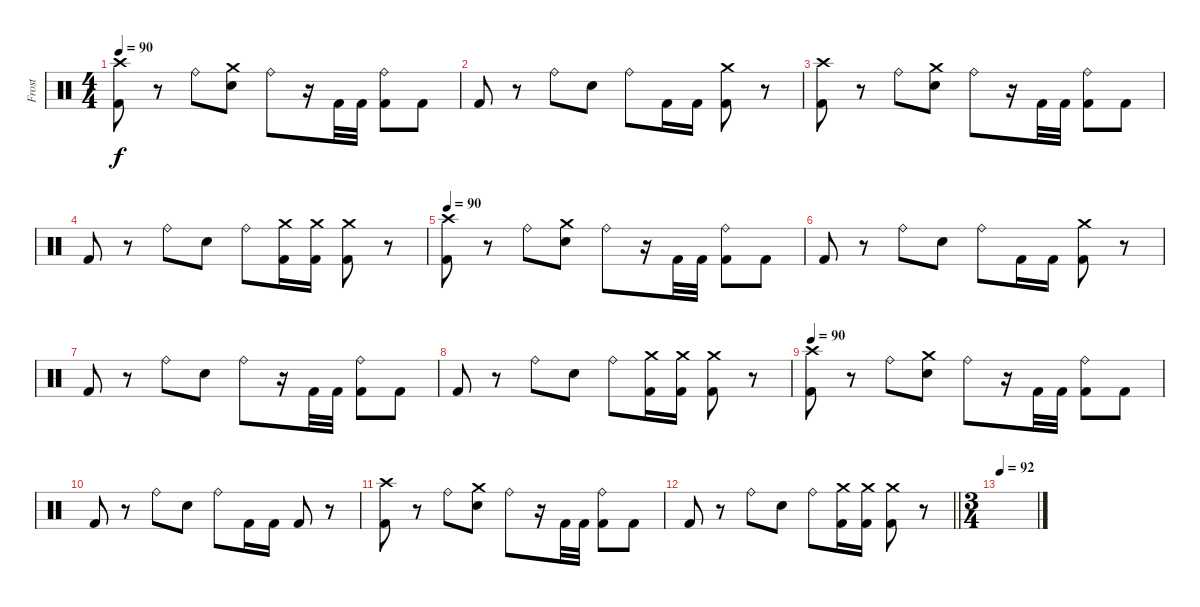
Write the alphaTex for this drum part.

\track ("Frost" "Frost") {instrument percussion}
\staff {score}
\articulation defaults
\ts (4 4)
\tempo 90
\clef neutral
\ks c
("Kick (hit) 2" "Crash high (hit)").8{dy f} r.8 "Ride (bell)".8 ("Snare (hit) 2" "Crash medium (hit)").8 "Ride (bell)".8 r.16 "Kick (hit) 2".32 "Kick (hit) 2".32 ("Kick (hit) 2" "Ride (bell)").8 "Kick (hit) 2".8 |
"Kick (hit) 2".8 r.8 "Ride (bell)".8 "Snare (hit) 2".8 "Ride (bell)".8 "Kick (hit) 2".16 "Kick (hit) 2".16 ("Kick (hit) 2" "Crash medium (hit)").8 r.8 |
("Kick (hit) 2" "Crash high (hit)").8 r.8 "Ride (bell)".8 ("Snare (hit) 2" "Crash medium (hit)").8 "Ride (bell)".8 r.16 "Kick (hit) 2".32 "Kick (hit) 2".32 ("Kick (hit) 2" "Ride (bell)").8 "Kick (hit) 2".8 |
"Kick (hit) 2".8 r.8 "Ride (bell)".8 "Snare (hit) 2".8 "Ride (bell)".8 ("Kick (hit) 2" "Crash medium (hit)").16 ("Kick (hit) 2" "Crash medium (hit)").16 ("Kick (hit) 2" "Crash medium (hit)").8 r.8 |
\tempo 90
("Kick (hit) 2" "Crash high (hit)").8 r.8 "Ride (bell)".8 ("Snare (hit) 2" "Crash medium (hit)").8 "Ride (bell)".8 r.16 "Kick (hit) 2".32 "Kick (hit) 2".32 ("Kick (hit) 2" "Ride (bell)").8 "Kick (hit) 2".8 |
"Kick (hit) 2".8 r.8 "Ride (bell)".8 "Snare (hit) 2".8 "Ride (bell)".8 "Kick (hit) 2".16 "Kick (hit) 2".16 ("Kick (hit) 2" "Crash medium (hit)").8 r.8 |
"Kick (hit) 2".8 r.8 "Ride (bell)".8 "Snare (hit) 2".8 "Ride (bell)".8 r.16 "Kick (hit) 2".32 "Kick (hit) 2".32 ("Kick (hit) 2" "Ride (bell)").8 "Kick (hit) 2".8 |
"Kick (hit) 2".8 r.8 "Ride (bell)".8 "Snare (hit) 2".8 "Ride (bell)".8 ("Kick (hit) 2" "Crash medium (hit)").16 ("Kick (hit) 2" "Crash medium (hit)").16 ("Kick (hit) 2" "Crash medium (hit)").8 r.8 |
\tempo 90
("Kick (hit) 2" "Crash high (hit)").8 r.8 "Ride (bell)".8 ("Snare (hit) 2" "Crash medium (hit)").8 "Ride (bell)".8 r.16 "Kick (hit) 2".32 "Kick (hit) 2".32 ("Kick (hit) 2" "Ride (bell)").8 "Kick (hit) 2".8 |
"Kick (hit) 2".8 r.8 "Ride (bell)".8 "Snare (hit) 2".8 "Ride (bell)".8 "Kick (hit) 2".16 "Kick (hit) 2".16 "Kick (hit) 2".8 r.8 |
("Kick (hit) 2" "Crash high (hit)").8 r.8 "Ride (bell)".8 ("Snare (hit) 2" "Crash medium (hit)").8 "Ride (bell)".8 r.16 "Kick (hit) 2".32 "Kick (hit) 2".32 ("Kick (hit) 2" "Ride (bell)").8 "Kick (hit) 2".8 |
\barLineRight lightlight "Kick (hit) 2".8
r.8 "Ride (bell)".8 "Snare (hit) 2".8 "Ride (bell)".8 ("Kick (hit) 2" "Crash medium (hit)").16 ("Kick (hit) 2" "Crash medium (hit)").16 ("Kick (hit) 2" "Crash medium (hit)").8 r.8 |
\ts (3 4)
\tempo 92
